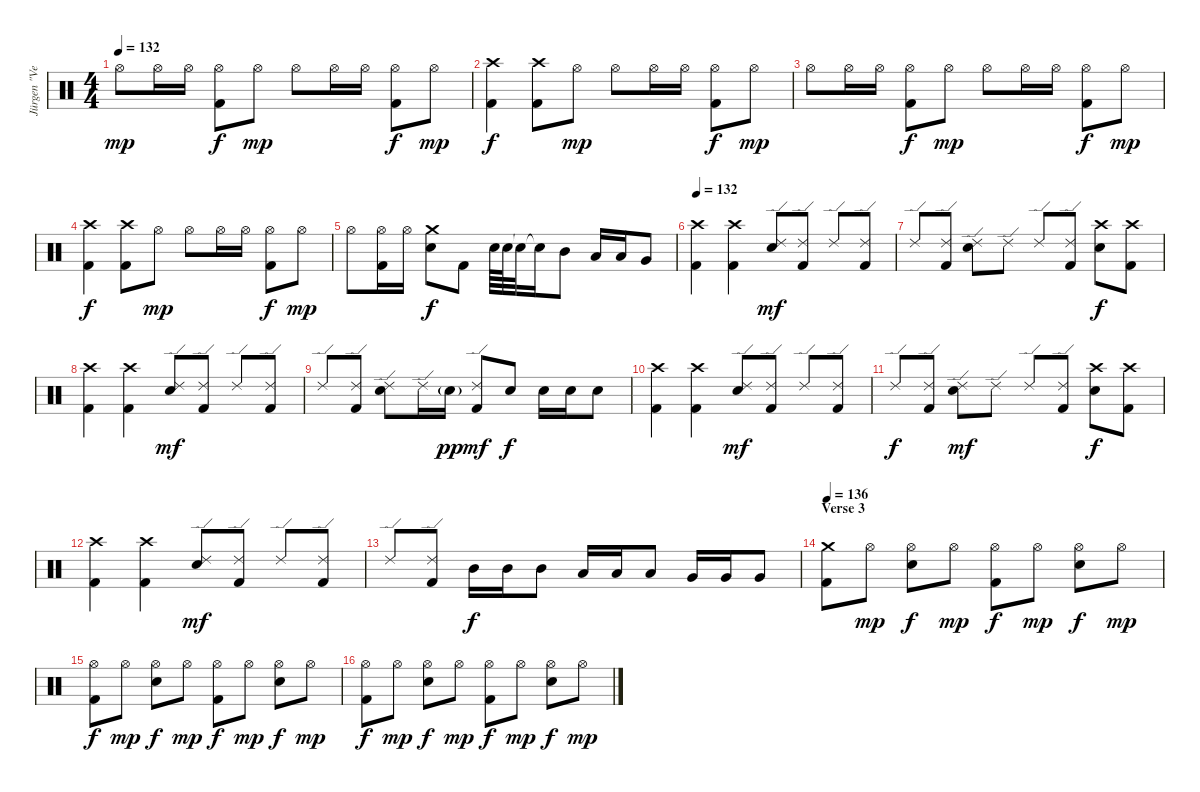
\track ("Jürgen \"Ventor\" Reil" "Jürgen \"Ve") {instrument percussion}
\staff {score}
\articulation defaults
\ts (4 4)
\tempo 132
\clef neutral
\ks c "Hi-Hat (open)".8{dy mp} "Hi-Hat (open)".16 "Hi-Hat (open)".16
("Kick (hit) 2" "Hi-Hat (open)").8{dy f} "Hi-Hat (open)".8{dy mp} "Hi-Hat (open)".8 "Hi-Hat (open)".16 "Hi-Hat (open)".16 ("Kick (hit) 2" "Hi-Hat (open)").8{dy f} "Hi-Hat (open)".8{dy mp} |
("Kick (hit) 2" "Crash high (hit)").4{dy f} ("Kick (hit) 2" "Crash high (hit)").8 "Hi-Hat (open)".8{dy mp} "Hi-Hat (open)".8 "Hi-Hat (open)".16 "Hi-Hat (open)".16 ("Kick (hit) 2" "Hi-Hat (open)").8{dy f} "Hi-Hat (open)".8{dy mp} |
"Hi-Hat (open)".8 "Hi-Hat (open)".16 "Hi-Hat (open)".16 ("Kick (hit) 2" "Hi-Hat (open)").8{dy f} "Hi-Hat (open)".8{dy mp} "Hi-Hat (open)".8 "Hi-Hat (open)".16 "Hi-Hat (open)".16 ("Kick (hit) 2" "Hi-Hat (open)").8{dy f} "Hi-Hat (open)".8{dy mp} |
("Kick (hit) 2" "Crash high (hit)").4{dy f} ("Kick (hit) 2" "Crash high (hit)").8 "Hi-Hat (open)".8{dy mp} "Hi-Hat (open)".8 "Hi-Hat (open)".16 "Hi-Hat (open)".16 ("Kick (hit) 2" "Hi-Hat (open)").8{dy f} "Hi-Hat (open)".8{dy mp} |
"Hi-Hat (open)".8 ("Kick (hit) 2" "Hi-Hat (open)").16 "Hi-Hat (open)".16 ("Crash medium (hit)" "Snare (hit) 2").8{dy f} "Kick (hit) 2".8 "Snare (hit) 2".64 "Snare (hit) 2".64 "Snare (hit)"{t}.32 "Snare (hit)"{t}.16 "Mid Tom (hit)".8 "Low Tom (hit)".16 "Low Tom (hit)".16 "Very Low Tom (hit)".8 |
\tempo 132
("Kick (hit) 2" "Crash high (hit)").4 ("Kick (hit) 2" "Crash high (hit)").4 ("Ride (edge) 2" "Snare (hit) 2").8{dy mf} ("Kick (hit) 2" "Ride (edge) 2").8 "Ride (edge) 2".8 ("Kick (hit) 2" "Ride (edge) 2").8 |
"Ride (edge) 2".8 ("Kick (hit) 2" "Ride (edge) 2").8 ("Ride (edge) 2" "Snare (hit) 2").8 "Ride (edge) 2".8 "Ride (edge) 2".8 ("Kick (hit) 2" "Ride (edge) 2").8 ("Crash high (hit)" "Snare (hit) 2").8{dy f} ("Kick (hit) 2" "Crash high (hit)").8 |
("Kick (hit) 2" "Crash high (hit)").4 ("Kick (hit) 2" "Crash high (hit)").4 ("Ride (edge) 2" "Snare (hit) 2").8{dy mf} ("Kick (hit) 2" "Ride (edge) 2").8 "Ride (edge) 2".8 ("Kick (hit) 2" "Ride (edge) 2").8 |
"Ride (edge) 2".8 ("Kick (hit) 2" "Ride (edge) 2").8 ("Ride (edge) 2" "Snare (hit) 2").8 "Ride (edge) 2".16 "Snare (hit) 2"{g}.16{dy pp} ("Kick (hit) 2" "Ride (edge) 2").8{dy mf} "Snare (hit) 2".8{dy f} "Snare (hit) 2".16 "Snare (hit) 2".16 "Snare (hit) 2".8 |
("Kick (hit) 2" "Crash high (hit)").4 ("Kick (hit) 2" "Crash high (hit)").4 ("Ride (edge) 2" "Snare (hit) 2").8{dy mf} ("Kick (hit) 2" "Ride (edge) 2").8 "Ride (edge) 2".8 ("Kick (hit) 2" "Ride (edge) 2").8 |
"Ride (edge) 2".8{dy f} ("Kick (hit) 2" "Ride (edge) 2").8 ("Ride (edge) 2" "Snare (hit) 2").8{dy mf} "Ride (edge) 2".8 "Ride (edge) 2".8 ("Kick (hit) 2" "Ride (edge) 2").8 ("Crash high (hit)" "Snare (hit) 2").8{dy f} ("Kick (hit) 2" "Crash high (hit)").8 |
("Kick (hit) 2" "Crash high (hit)").4 ("Kick (hit) 2" "Crash high (hit)").4 ("Ride (edge) 2" "Snare (hit) 2").8{dy mf} ("Kick (hit) 2" "Ride (edge) 2").8 "Ride (edge) 2".8 ("Kick (hit) 2" "Ride (edge) 2").8 |
"Ride (edge) 2".8 ("Kick (hit) 2" "Ride (edge) 2").8 "Mid Tom (hit)".16{dy f} "Mid Tom (hit)".16 "Mid Tom (hit)".8 "Low Tom (hit)".16 "Low Tom (hit)".16 "Low Tom (hit)".8 "Very Low Tom (hit)".16 "Very Low Tom (hit)".16 "Very Low Tom (hit)".8 |
\section ("" "Verse 3")
\tempo 136
("Kick (hit) 2" "Crash medium (hit)").8 "Hi-Hat (open)".8{dy mp} ("Hi-Hat (open)" "Snare (hit) 2").8{dy f} "Hi-Hat (open)".8{dy mp} ("Kick (hit) 2" "Hi-Hat (open)").8{dy f} "Hi-Hat (open)".8{dy mp} ("Hi-Hat (open)" "Snare (hit) 2").8{dy f} "Hi-Hat (open)".8{dy mp} |
("Kick (hit) 2" "Hi-Hat (open)").8{dy f} "Hi-Hat (open)".8{dy mp} ("Hi-Hat (open)" "Snare (hit) 2").8{dy f} "Hi-Hat (open)".8{dy mp} ("Kick (hit) 2" "Hi-Hat (open)").8{dy f} "Hi-Hat (open)".8{dy mp} ("Hi-Hat (open)" "Snare (hit) 2").8{dy f} "Hi-Hat (open)".8{dy mp} |
("Kick (hit) 2" "Hi-Hat (open)").8{dy f} "Hi-Hat (open)".8{dy mp} ("Hi-Hat (open)" "Snare (hit) 2").8{dy f} "Hi-Hat (open)".8{dy mp} ("Kick (hit) 2" "Hi-Hat (open)").8{dy f} "Hi-Hat (open)".8{dy mp} ("Hi-Hat (open)" "Snare (hit) 2").8{dy f} "Hi-Hat (open)".8{dy mp}
